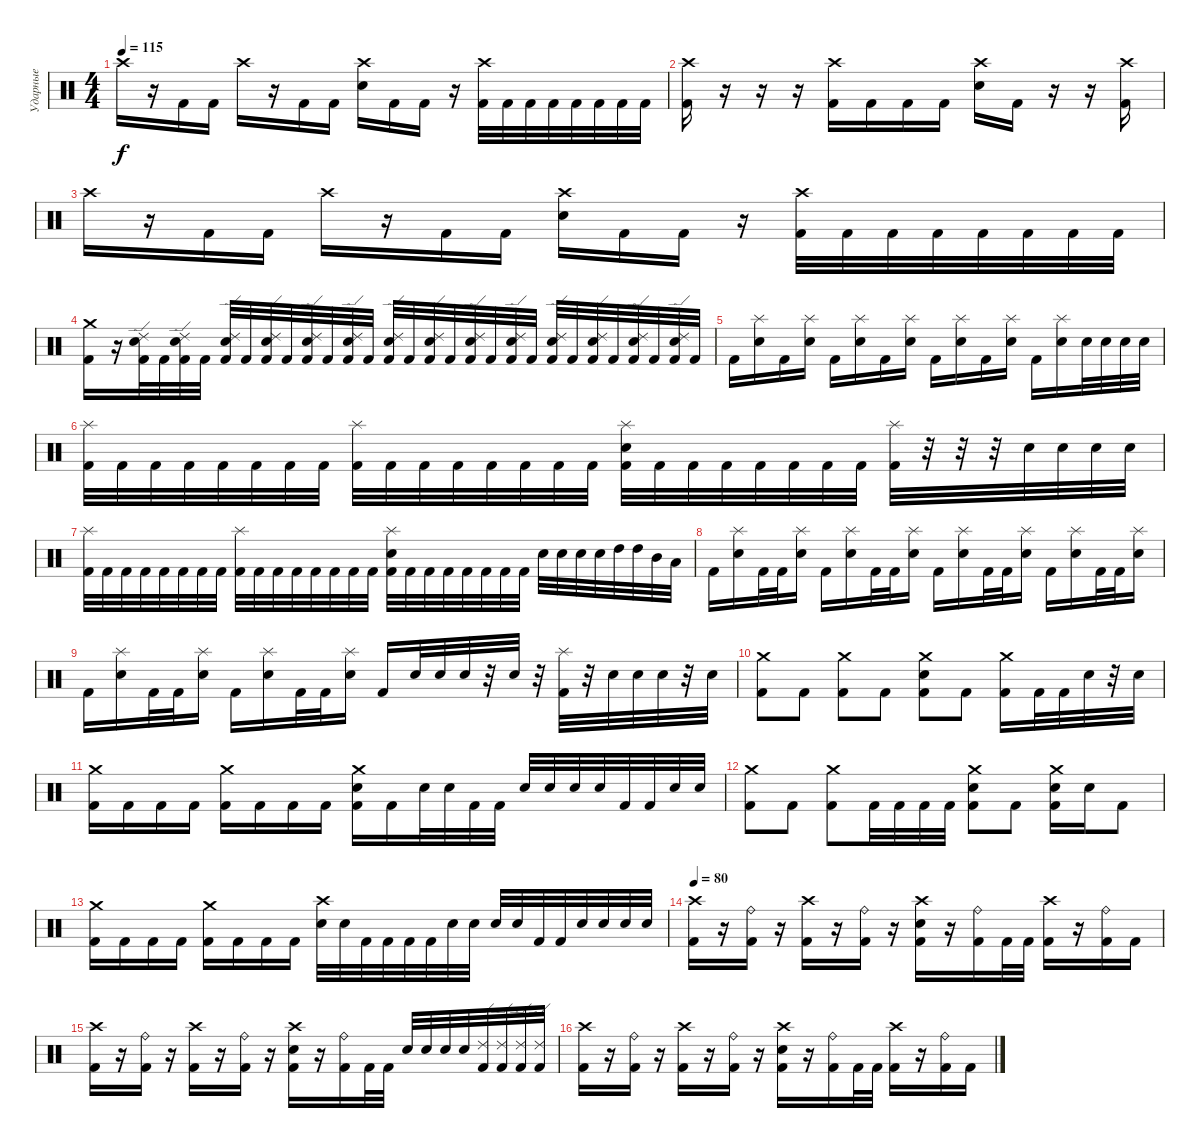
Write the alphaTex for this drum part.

\track ("Ударные" "Ударные") {instrument percussion}
\staff {score}
\articulation defaults
\ts (4 4)
\tempo 115
\clef neutral
\ks c "Crash high (hit)".16{dy f}
r.16 "Kick (hit) 2".16 "Kick (hit) 2".16 "Crash high (hit)".16 r.16 "Kick (hit) 2".16 "Kick (hit) 2".16 ("Crash high (hit)" "Electric Snare (hit)").16 "Kick (hit) 2".16 "Kick (hit) 2".16 r.16 ("Crash high (hit)" "Kick (hit) 2").32 "Kick (hit) 2".32 "Kick (hit) 2".32 "Kick (hit) 2".32 "Kick (hit) 2".32 "Kick (hit) 2".32 "Kick (hit) 2".32 "Kick (hit) 2".32 |
("Crash high (hit)" "Kick (hit) 2").16 r.16 r.16 r.16 ("Crash high (hit)" "Kick (hit) 2").16 "Kick (hit) 2".16 "Kick (hit) 2".16 "Kick (hit) 2".16 ("Crash high (hit)" "Electric Snare (hit)").16 "Kick (hit) 2".16 r.16 r.16 ("Crash high (hit)" "Kick (hit) 2").16 |
"Crash high (hit)".16 r.16 "Kick (hit) 2".16 "Kick (hit) 2".16 "Crash high (hit)".16 r.16 "Kick (hit) 2".16 "Kick (hit) 2".16 ("Crash high (hit)" "Electric Snare (hit)").16 "Kick (hit) 2".16 "Kick (hit) 2".16 r.16 ("Crash high (hit)" "Kick (hit) 2").32 "Kick (hit) 2".32 "Kick (hit) 2".32 "Kick (hit) 2".32 "Kick (hit) 2".32 "Kick (hit) 2".32 "Kick (hit) 2".32 "Kick (hit) 2".32 |
("Crash medium (hit)" "Kick (hit) 2").16 r.16 ("Ride (edge) 2" "Electric Snare (hit)" "Kick (hit) 2").32 "Kick (hit) 2".32 ("Ride (edge) 2" "Electric Snare (hit)" "Kick (hit) 2").32 "Kick (hit) 2".32 ("Ride (edge) 2" "Electric Snare (hit)" "Kick (hit) 2").32 "Kick (hit) 2".32 ("Ride (edge) 2" "Electric Snare (hit)" "Kick (hit) 2").32 "Kick (hit) 2".32 ("Ride (edge) 2" "Electric Snare (hit)" "Kick (hit) 2").32 "Kick (hit) 2".32 ("Ride (edge) 2" "Electric Snare (hit)" "Kick (hit) 2").32 "Kick (hit) 2".32 ("Ride (edge) 2" "Electric Snare (hit)" "Kick (hit) 2").32 "Kick (hit) 2".32 ("Ride (edge) 2" "Electric Snare (hit)" "Kick (hit) 2").32 "Kick (hit) 2".32 ("Ride (edge) 2" "Electric Snare (hit)" "Kick (hit) 2").32 "Kick (hit) 2".32 ("Ride (edge) 2" "Electric Snare (hit)" "Kick (hit) 2").32 "Kick (hit) 2".32 ("Ride (edge) 2" "Electric Snare (hit)" "Kick (hit) 2").32 "Kick (hit) 2".32 ("Ride (edge) 2" "Electric Snare (hit)" "Kick (hit) 2").32 "Kick (hit) 2".32 ("Ride (edge) 2" "Electric Snare (hit)" "Kick (hit) 2").32 "Kick (hit) 2".32 ("Ride (edge) 2" "Electric Snare (hit)" "Kick (hit) 2").32 "Kick (hit) 2".32 |
"Kick (hit) 2".16 ("Splash (hit)" "Electric Snare (hit)").16 "Kick (hit) 2".16 ("Splash (hit)" "Electric Snare (hit)").16 "Kick (hit) 2".16 ("Splash (hit)" "Electric Snare (hit)").16 "Kick (hit) 2".16 ("Splash (hit)" "Electric Snare (hit)").16 "Kick (hit) 2".16 ("Splash (hit)" "Electric Snare (hit)").16 "Kick (hit) 2".16 ("Splash (hit)" "Electric Snare (hit)").16 "Kick (hit) 2".16 ("Splash (hit)" "Electric Snare (hit)").16 "Electric Snare (hit)".32 "Electric Snare (hit)".32 "Electric Snare (hit)".32 "Electric Snare (hit)".32 |
("Splash (hit)" "Kick (hit) 2").32 "Kick (hit) 2".32 "Kick (hit) 2".32 "Kick (hit) 2".32 "Kick (hit) 2".32 "Kick (hit) 2".32 "Kick (hit) 2".32 "Kick (hit) 2".32 ("Splash (hit)" "Kick (hit) 2").32 "Kick (hit) 2".32 "Kick (hit) 2".32 "Kick (hit) 2".32 "Kick (hit) 2".32 "Kick (hit) 2".32 "Kick (hit) 2".32 "Kick (hit) 2".32 ("Splash (hit)" "Electric Snare (hit)" "Kick (hit) 2").32 "Kick (hit) 2".32 "Kick (hit) 2".32 "Kick (hit) 2".32 "Kick (hit) 2".32 "Kick (hit) 2".32 "Kick (hit) 2".32 "Kick (hit) 2".32 ("Splash (hit)" "Kick (hit) 2").32 r.32 r.32 r.32 "Electric Snare (hit)".32 "Electric Snare (hit)".32 "Electric Snare (hit)".32 "Electric Snare (hit)".32 |
("Splash (hit)" "Kick (hit) 2").32 "Kick (hit) 2".32 "Kick (hit) 2".32 "Kick (hit) 2".32 "Kick (hit) 2".32 "Kick (hit) 2".32 "Kick (hit) 2".32 "Kick (hit) 2".32 ("Splash (hit)" "Kick (hit) 2").32 "Kick (hit) 2".32 "Kick (hit) 2".32 "Kick (hit) 2".32 "Kick (hit) 2".32 "Kick (hit) 2".32 "Kick (hit) 2".32 "Kick (hit) 2".32 ("Splash (hit)" "Electric Snare (hit)" "Kick (hit) 2").32 "Kick (hit) 2".32 "Kick (hit) 2".32 "Kick (hit) 2".32 "Kick (hit) 2".32 "Kick (hit) 2".32 "Kick (hit) 2".32 "Kick (hit) 2".32 "Electric Snare (hit)".32 "Electric Snare (hit)".32 "Electric Snare (hit)".32 "Electric Snare (hit)".32 "High Tom (hit)".32 "High Tom (hit)".32 "Mid Tom (hit)".32 "Low Tom (hit)".32 |
"Kick (hit) 2".16 ("Splash (hit)" "Electric Snare (hit)").16 "Kick (hit) 2".32 "Kick (hit) 2".32 ("Splash (hit)" "Electric Snare (hit)").16 "Kick (hit) 2".16 ("Splash (hit)" "Electric Snare (hit)").16 "Kick (hit) 2".32 "Kick (hit) 2".32 ("Splash (hit)" "Electric Snare (hit)").16 "Kick (hit) 2".16 ("Splash (hit)" "Electric Snare (hit)").16 "Kick (hit) 2".32 "Kick (hit) 2".32 ("Splash (hit)" "Electric Snare (hit)").16 "Kick (hit) 2".16 ("Splash (hit)" "Electric Snare (hit)").16 "Kick (hit) 2".32 "Kick (hit) 2".32 ("Splash (hit)" "Electric Snare (hit)").16 |
"Kick (hit) 2".16 ("Splash (hit)" "Electric Snare (hit)").16 "Kick (hit) 2".32 "Kick (hit) 2".32 ("Splash (hit)" "Electric Snare (hit)").16 "Kick (hit) 2".16 ("Splash (hit)" "Electric Snare (hit)").16 "Kick (hit) 2".32 "Kick (hit) 2".32 ("Splash (hit)" "Electric Snare (hit)").16 "Kick (hit) 2".16 "Electric Snare (hit)".32 "Electric Snare (hit)".32 "Electric Snare (hit)".32 r.32 "Electric Snare (hit)".32 r.32 ("Splash (hit)" "Kick (hit) 2").32 r.32 "Electric Snare (hit)".32 "Electric Snare (hit)".32 "Electric Snare (hit)".32 r.32 "Electric Snare (hit)".32 |
("Crash medium (hit)" "Kick (hit) 2").8 "Kick (hit) 2".8 ("Crash medium (hit)" "Kick (hit) 2").8 "Kick (hit) 2".8 ("Crash medium (hit)" "Electric Snare (hit)" "Kick (hit) 2").8 "Kick (hit) 2".8 ("Crash medium (hit)" "Kick (hit) 2").16 "Kick (hit) 2".32 "Kick (hit) 2".32 "Electric Snare (hit)".32 r.32 "Electric Snare (hit)".32 |
("Crash medium (hit)" "Kick (hit) 2").16 "Kick (hit) 2".16 "Kick (hit) 2".16 "Kick (hit) 2".16 ("Crash medium (hit)" "Kick (hit) 2").16 "Kick (hit) 2".16 "Kick (hit) 2".16 "Kick (hit) 2".16 ("Crash medium (hit)" "Electric Snare (hit)" "Kick (hit) 2").16 "Kick (hit) 2".16 "Electric Snare (hit)".32 "Electric Snare (hit)".32 "Kick (hit) 2".32 "Kick (hit) 2".32 "Electric Snare (hit)".32 "Electric Snare (hit)".32 "Electric Snare (hit)".32 "Electric Snare (hit)".32 "Kick (hit) 2".32 "Kick (hit) 2".32 "Electric Snare (hit)".32 "Electric Snare (hit)".32 |
("Crash medium (hit)" "Kick (hit) 2").8 "Kick (hit) 2".8 ("Crash medium (hit)" "Kick (hit) 2").8 "Kick (hit) 2".32 "Kick (hit) 2".32 "Kick (hit) 2".32 "Kick (hit) 2".32 ("Crash medium (hit)" "Electric Snare (hit)" "Kick (hit) 2").8 "Kick (hit) 2".8 ("Crash medium (hit)" "Electric Snare (hit)" "Kick (hit) 2").16 "Electric Snare (hit)".16 "Kick (hit) 2".8 |
("Crash medium (hit)" "Kick (hit) 2").16 "Kick (hit) 2".16 "Kick (hit) 2".16 "Kick (hit) 2".16 ("Crash medium (hit)" "Kick (hit) 2").16 "Kick (hit) 2".16 "Kick (hit) 2".16 "Kick (hit) 2".16 ("Crash high (hit)" "Electric Snare (hit)").32 "Electric Snare (hit)".32 "Kick (hit) 2".32 "Kick (hit) 2".32 "Kick (hit) 2".32 "Kick (hit) 2".32 "Electric Snare (hit)".32 "Electric Snare (hit)".32 "Electric Snare (hit)".32 "Electric Snare (hit)".32 "Kick (hit) 2".32 "Kick (hit) 2".32 "Electric Snare (hit)".32 "Electric Snare (hit)".32 "Electric Snare (hit)".32 "Electric Snare (hit)".32 |
\tempo 80
("Crash high (hit)" "Kick (hit) 2").16 r.16 ("Ride (bell)" "Kick (hit) 2").16 r.16 ("Crash high (hit)" "Kick (hit) 2").16 r.16 ("Ride (bell)" "Kick (hit) 2").16 r.16 ("Crash high (hit)" "Electric Snare (hit)" "Kick (hit) 2").16 r.16 ("Ride (bell)" "Kick (hit) 2").16 "Kick (hit) 2".32 "Kick (hit) 2".32 ("Crash high (hit)" "Kick (hit) 2").16 r.16 ("Ride (bell)" "Kick (hit) 2").16 "Kick (hit) 2".16 |
("Crash high (hit)" "Kick (hit) 2").16 r.16 ("Ride (bell)" "Kick (hit) 2").16 r.16 ("Crash high (hit)" "Kick (hit) 2").16 r.16 ("Ride (bell)" "Kick (hit) 2").16 r.16 ("Crash high (hit)" "Electric Snare (hit)" "Kick (hit) 2").16 r.16 ("Ride (bell)" "Kick (hit) 2").16 "Kick (hit) 2".32 "Kick (hit) 2".32 "Electric Snare (hit)".32 "Electric Snare (hit)".32 "Electric Snare (hit)".32 "Electric Snare (hit)".32 ("Ride (edge) 2" "Kick (hit) 2").32 ("Ride (edge) 2" "Kick (hit) 2").32 ("Ride (edge) 2" "Kick (hit) 2").32 ("Ride (edge) 2" "Kick (hit) 2").32 |
("Crash high (hit)" "Kick (hit) 2").16 r.16 ("Ride (bell)" "Kick (hit) 2").16 r.16 ("Crash high (hit)" "Kick (hit) 2").16 r.16 ("Ride (bell)" "Kick (hit) 2").16 r.16 ("Crash high (hit)" "Electric Snare (hit)" "Kick (hit) 2").16 r.16 ("Ride (bell)" "Kick (hit) 2").16 "Kick (hit) 2".32 "Kick (hit) 2".32 ("Crash high (hit)" "Kick (hit) 2").16 r.16 ("Ride (bell)" "Kick (hit) 2").16 "Kick (hit) 2".16
